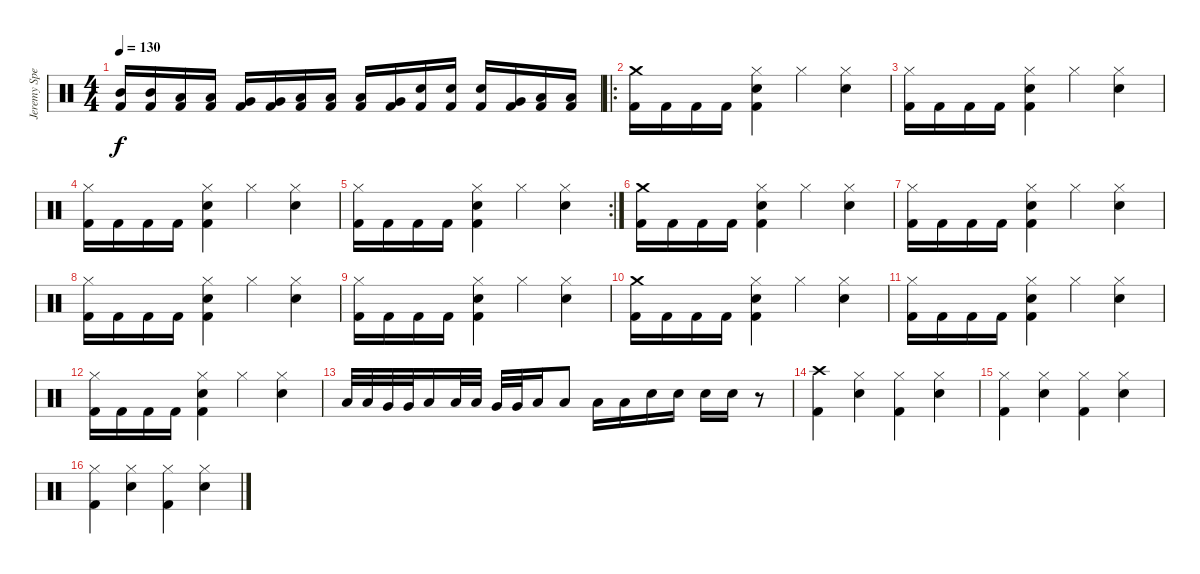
\track ("Jeremy Spencer" "Jeremy Spe") {instrument percussion}
\staff {score}
\articulation defaults
\ts (4 4)
\tempo 130
\clef neutral
\ks c
("Mid Tom (hit)" "Kick (hit) 2").16{dy f} ("Mid Tom (hit)" "Kick (hit) 2").16 ("Low Tom (hit)" "Kick (hit) 2").16 ("Low Tom (hit)" "Kick (hit) 2").16 ("Very Low Tom (hit)" "Kick (hit) 2").16 ("Very Low Tom (hit)" "Kick (hit) 2").16 ("Low Floor Tom (hit)" "Kick (hit) 2").16 ("Low Floor Tom (hit)" "Kick (hit) 2").16 ("Low Tom (hit)" "Kick (hit) 2").16 ("Very Low Tom (hit)" "Kick (hit) 2").16 ("Snare (hit) 2" "Kick (hit) 2").16 ("Snare (hit) 2" "Kick (hit) 2").16 ("Snare (hit) 2" "Kick (hit) 2").16 ("Very Low Tom (hit)" "Kick (hit) 2").16 ("Low Floor Tom (hit)" "Kick (hit) 2").16 ("Low Floor Tom (hit)" "Kick (hit) 2").16 |
\ro
("Crash medium (hit)" "Kick (hit) 2").16 "Kick (hit) 2".16 "Kick (hit) 2".16 "Kick (hit) 2".16 ("Hi-Hat (closed)" "Snare (hit) 2" "Kick (hit) 2").4 "Hi-Hat (closed)".4 ("Hi-Hat (closed)" "Snare (hit) 2").4 |
("Hi-Hat (closed)" "Kick (hit) 2").16 "Kick (hit) 2".16 "Kick (hit) 2".16 "Kick (hit) 2".16 ("Hi-Hat (closed)" "Snare (hit) 2" "Kick (hit) 2").4 "Hi-Hat (closed)".4 ("Hi-Hat (closed)" "Snare (hit) 2").4 |
("Hi-Hat (closed)" "Kick (hit) 2").16 "Kick (hit) 2".16 "Kick (hit) 2".16 "Kick (hit) 2".16 ("Hi-Hat (closed)" "Snare (hit) 2" "Kick (hit) 2").4 "Hi-Hat (closed)".4 ("Hi-Hat (closed)" "Snare (hit) 2").4 |
\rc 2
("Hi-Hat (closed)" "Kick (hit) 2").16 "Kick (hit) 2".16 "Kick (hit) 2".16 "Kick (hit) 2".16 ("Hi-Hat (closed)" "Snare (hit) 2" "Kick (hit) 2").4 "Hi-Hat (closed)".4 ("Hi-Hat (closed)" "Snare (hit) 2").4 |
("Crash medium (hit)" "Kick (hit) 2").16 "Kick (hit) 2".16 "Kick (hit) 2".16 "Kick (hit) 2".16 ("Hi-Hat (closed)" "Snare (hit) 2" "Kick (hit) 2").4 "Hi-Hat (closed)".4 ("Hi-Hat (closed)" "Snare (hit) 2").4 |
("Hi-Hat (closed)" "Kick (hit) 2").16 "Kick (hit) 2".16 "Kick (hit) 2".16 "Kick (hit) 2".16 ("Hi-Hat (closed)" "Snare (hit) 2" "Kick (hit) 2").4 "Hi-Hat (closed)".4 ("Hi-Hat (closed)" "Snare (hit) 2").4 |
("Hi-Hat (closed)" "Kick (hit) 2").16 "Kick (hit) 2".16 "Kick (hit) 2".16 "Kick (hit) 2".16 ("Hi-Hat (closed)" "Snare (hit) 2" "Kick (hit) 2").4 "Hi-Hat (closed)".4 ("Hi-Hat (closed)" "Snare (hit) 2").4 |
("Hi-Hat (closed)" "Kick (hit) 2").16 "Kick (hit) 2".16 "Kick (hit) 2".16 "Kick (hit) 2".16 ("Hi-Hat (closed)" "Snare (hit) 2" "Kick (hit) 2").4 "Hi-Hat (closed)".4 ("Hi-Hat (closed)" "Snare (hit) 2").4 |
("Crash medium (hit)" "Kick (hit) 2").16 "Kick (hit) 2".16 "Kick (hit) 2".16 "Kick (hit) 2".16 ("Hi-Hat (closed)" "Snare (hit) 2" "Kick (hit) 2").4 "Hi-Hat (closed)".4 ("Hi-Hat (closed)" "Snare (hit) 2").4 |
("Hi-Hat (closed)" "Kick (hit) 2").16 "Kick (hit) 2".16 "Kick (hit) 2".16 "Kick (hit) 2".16 ("Hi-Hat (closed)" "Snare (hit) 2" "Kick (hit) 2").4 "Hi-Hat (closed)".4 ("Hi-Hat (closed)" "Snare (hit) 2").4 |
("Hi-Hat (closed)" "Kick (hit) 2").16 "Kick (hit) 2".16 "Kick (hit) 2".16 "Kick (hit) 2".16 ("Hi-Hat (closed)" "Snare (hit) 2" "Kick (hit) 2").4 "Hi-Hat (closed)".4 ("Hi-Hat (closed)" "Snare (hit) 2").4 |
"Low Tom (hit)".32 "Low Tom (hit)".32 "Very Low Tom (hit)".32 "Very Low Tom (hit)".32 "Low Floor Tom (hit)".16 "Low Tom (hit)".32 "Low Tom (hit)".32 "Very Low Tom (hit)".32 "Very Low Tom (hit)".32 "Low Floor Tom (hit)".16 "Low Tom (hit)".8 "Low Tom (hit)".16 "Low Tom (hit)".16 "Snare (hit) 2".16 "Snare (hit) 2".16 "Snare (hit) 2".16 "Snare (hit) 2".16 r.8 |
("Crash high (hit)" "Kick (hit) 2").4 ("Hi-Hat (closed)" "Snare (hit) 2").4 ("Hi-Hat (closed)" "Kick (hit) 2").4 ("Hi-Hat (closed)" "Snare (hit) 2").4 |
("Hi-Hat (closed)" "Kick (hit) 2").4 ("Hi-Hat (closed)" "Snare (hit) 2").4 ("Hi-Hat (closed)" "Kick (hit) 2").4 ("Hi-Hat (closed)" "Snare (hit) 2").4 |
("Hi-Hat (closed)" "Kick (hit) 2").4 ("Hi-Hat (closed)" "Snare (hit) 2").4 ("Hi-Hat (closed)" "Kick (hit) 2").4 ("Hi-Hat (closed)" "Snare (hit) 2").4
